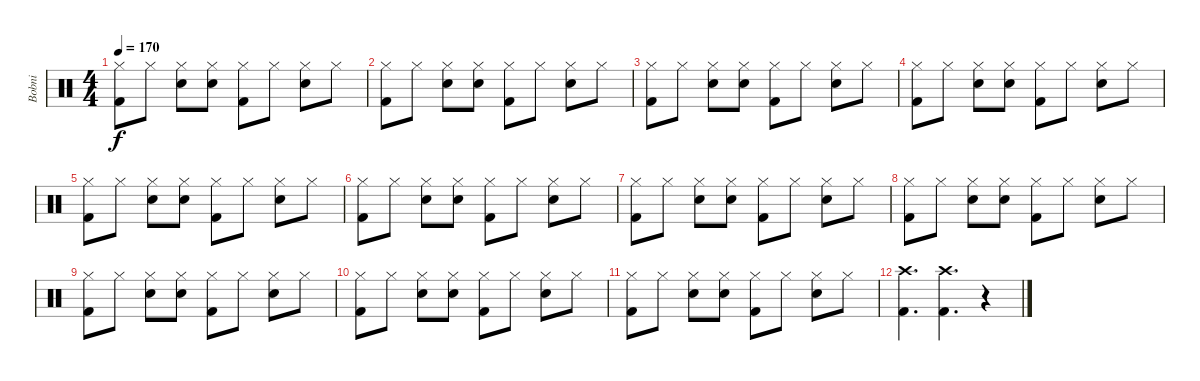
\track ("Bobni" "Bobni") {instrument percussion}
\staff {score}
\articulation defaults
\ts (4 4)
\tempo 170
\clef neutral
\ks c
("Hi-Hat (closed)" "Kick (hit) 2").8{dy f} "Hi-Hat (closed)".8 ("Hi-Hat (closed)" "Snare (hit) 2").8 ("Hi-Hat (closed)" "Snare (hit) 2").8 ("Hi-Hat (closed)" "Kick (hit) 2").8 "Hi-Hat (closed)".8 ("Hi-Hat (closed)" "Snare (hit) 2").8 "Hi-Hat (closed)".8 |
("Hi-Hat (closed)" "Kick (hit) 2").8 "Hi-Hat (closed)".8 ("Hi-Hat (closed)" "Snare (hit) 2").8 ("Hi-Hat (closed)" "Snare (hit) 2").8 ("Hi-Hat (closed)" "Kick (hit) 2").8 "Hi-Hat (closed)".8 ("Hi-Hat (closed)" "Snare (hit) 2").8 "Hi-Hat (closed)".8 |
("Hi-Hat (closed)" "Kick (hit) 2").8 "Hi-Hat (closed)".8 ("Hi-Hat (closed)" "Snare (hit) 2").8 ("Hi-Hat (closed)" "Snare (hit) 2").8 ("Hi-Hat (closed)" "Kick (hit) 2").8 "Hi-Hat (closed)".8 ("Hi-Hat (closed)" "Snare (hit) 2").8 "Hi-Hat (closed)".8 |
("Hi-Hat (closed)" "Kick (hit) 2").8 "Hi-Hat (closed)".8 ("Hi-Hat (closed)" "Snare (hit) 2").8 ("Hi-Hat (closed)" "Snare (hit) 2").8 ("Hi-Hat (closed)" "Kick (hit) 2").8 "Hi-Hat (closed)".8 ("Hi-Hat (closed)" "Snare (hit) 2").8 "Hi-Hat (closed)".8 |
("Hi-Hat (closed)" "Kick (hit) 2").8 "Hi-Hat (closed)".8 ("Hi-Hat (closed)" "Snare (hit) 2").8 ("Hi-Hat (closed)" "Snare (hit) 2").8 ("Hi-Hat (closed)" "Kick (hit) 2").8 "Hi-Hat (closed)".8 ("Hi-Hat (closed)" "Snare (hit) 2").8 "Hi-Hat (closed)".8 |
("Hi-Hat (closed)" "Kick (hit) 2").8 "Hi-Hat (closed)".8 ("Hi-Hat (closed)" "Snare (hit) 2").8 ("Hi-Hat (closed)" "Snare (hit) 2").8 ("Hi-Hat (closed)" "Kick (hit) 2").8 "Hi-Hat (closed)".8 ("Hi-Hat (closed)" "Snare (hit) 2").8 "Hi-Hat (closed)".8 |
("Hi-Hat (closed)" "Kick (hit) 2").8 "Hi-Hat (closed)".8 ("Hi-Hat (closed)" "Snare (hit) 2").8 ("Hi-Hat (closed)" "Snare (hit) 2").8 ("Hi-Hat (closed)" "Kick (hit) 2").8 "Hi-Hat (closed)".8 ("Hi-Hat (closed)" "Snare (hit) 2").8 "Hi-Hat (closed)".8 |
("Hi-Hat (closed)" "Kick (hit) 2").8 "Hi-Hat (closed)".8 ("Hi-Hat (closed)" "Snare (hit) 2").8 ("Hi-Hat (closed)" "Snare (hit) 2").8 ("Hi-Hat (closed)" "Kick (hit) 2").8 "Hi-Hat (closed)".8 ("Hi-Hat (closed)" "Snare (hit) 2").8 "Hi-Hat (closed)".8 |
("Hi-Hat (closed)" "Kick (hit) 2").8 "Hi-Hat (closed)".8 ("Hi-Hat (closed)" "Snare (hit) 2").8 ("Hi-Hat (closed)" "Snare (hit) 2").8 ("Hi-Hat (closed)" "Kick (hit) 2").8 "Hi-Hat (closed)".8 ("Hi-Hat (closed)" "Snare (hit) 2").8 "Hi-Hat (closed)".8 |
("Hi-Hat (closed)" "Kick (hit) 2").8 "Hi-Hat (closed)".8 ("Hi-Hat (closed)" "Snare (hit) 2").8 ("Hi-Hat (closed)" "Snare (hit) 2").8 ("Hi-Hat (closed)" "Kick (hit) 2").8 "Hi-Hat (closed)".8 ("Hi-Hat (closed)" "Snare (hit) 2").8 "Hi-Hat (closed)".8 |
("Hi-Hat (closed)" "Kick (hit) 2").8 "Hi-Hat (closed)".8 ("Hi-Hat (closed)" "Snare (hit) 2").8 ("Hi-Hat (closed)" "Snare (hit) 2").8 ("Hi-Hat (closed)" "Kick (hit) 2").8 "Hi-Hat (closed)".8 ("Hi-Hat (closed)" "Snare (hit) 2").8 "Hi-Hat (closed)".8 |
("Crash high (hit)" "Kick (hit) 2").4{d} ("Crash high (hit)" "Kick (hit) 2").4{d} r.4
